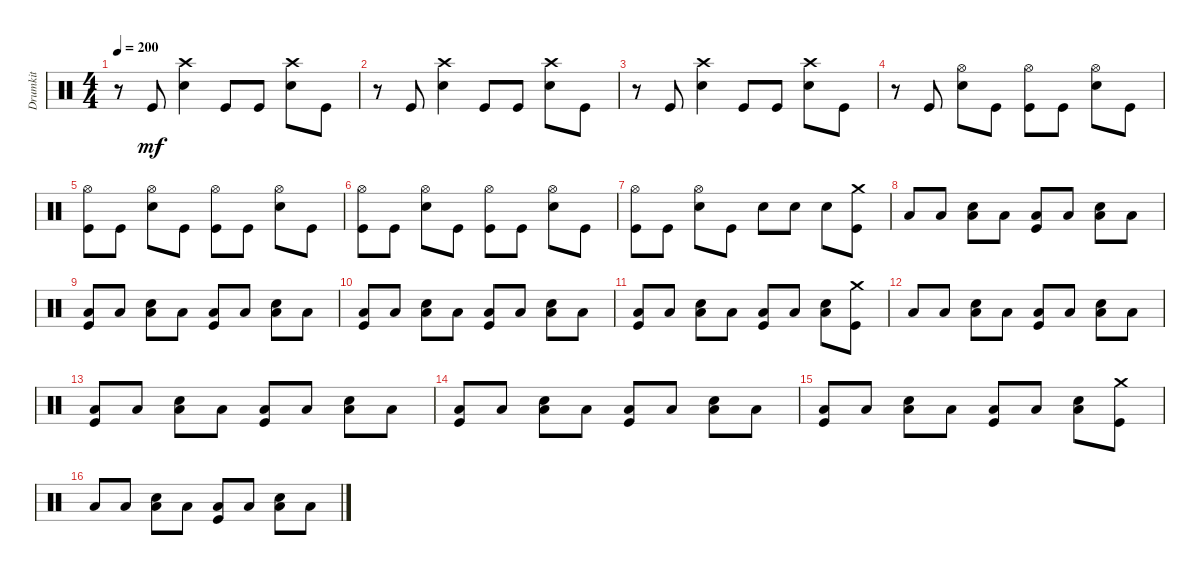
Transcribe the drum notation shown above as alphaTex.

\track ("Drumkit" "Drumkit") {instrument percussion}
\staff {score}
\articulation defaults
\ts (4 4)
\tempo 200
\clef neutral
\ks c
r.8{dy mf} "Kick (hit)".8 ("Snare (hit) 2" "Crash high (hit)").4 "Kick (hit)".8 "Kick (hit)".8 ("Snare (hit) 2" "Crash high (hit)").8 "Kick (hit)".8 |
r.8 "Kick (hit)".8 ("Snare (hit) 2" "Crash high (hit)").4 "Kick (hit)".8 "Kick (hit)".8 ("Snare (hit) 2" "Crash high (hit)").8 "Kick (hit)".8 |
r.8 "Kick (hit)".8 ("Snare (hit) 2" "Crash high (hit)").4 "Kick (hit)".8 "Kick (hit)".8 ("Snare (hit) 2" "Crash high (hit)").8 "Kick (hit)".8 |
r.8 "Kick (hit)".8 ("Hi-Hat (open)" "Snare (hit) 2").8 "Kick (hit)".8 ("Kick (hit)" "Hi-Hat (open)").8 "Kick (hit)".8 ("Snare (hit) 2" "Hi-Hat (open)").8 "Kick (hit)".8 |
("Kick (hit)" "Hi-Hat (open)").8 "Kick (hit)".8 ("Hi-Hat (open)" "Snare (hit) 2").8 "Kick (hit)".8 ("Kick (hit)" "Hi-Hat (open)").8 "Kick (hit)".8 ("Snare (hit) 2" "Hi-Hat (open)").8 "Kick (hit)".8 |
("Kick (hit)" "Hi-Hat (open)").8 "Kick (hit)".8 ("Hi-Hat (open)" "Snare (hit) 2").8 "Kick (hit)".8 ("Kick (hit)" "Hi-Hat (open)").8 "Kick (hit)".8 ("Snare (hit) 2" "Hi-Hat (open)").8 "Kick (hit)".8 |
("Kick (hit)" "Hi-Hat (open)").8 "Kick (hit)".8 ("Hi-Hat (open)" "Snare (hit) 2").8 "Kick (hit)".8 "Snare (hit) 2".8 "Snare (hit) 2".8 "Snare (hit) 2".8 ("Kick (hit)" "Crash medium (hit)").8 |
"Low Floor Tom (hit)".8 "Low Floor Tom (hit)".8 ("Low Floor Tom (hit)" "Snare (hit) 2").8 "Low Floor Tom (hit)".8 ("Low Floor Tom (hit)" "Kick (hit)").8 "Low Floor Tom (hit)".8 ("Low Floor Tom (hit)" "Snare (hit) 2").8 "Low Floor Tom (hit)".8 |
("Low Floor Tom (hit)" "Kick (hit)").8 "Low Floor Tom (hit)".8 ("Low Floor Tom (hit)" "Snare (hit) 2").8 "Low Floor Tom (hit)".8 ("Low Floor Tom (hit)" "Kick (hit)").8 "Low Floor Tom (hit)".8 ("Low Floor Tom (hit)" "Snare (hit) 2").8 "Low Floor Tom (hit)".8 |
("Low Floor Tom (hit)" "Kick (hit)").8 "Low Floor Tom (hit)".8 ("Low Floor Tom (hit)" "Snare (hit) 2").8 "Low Floor Tom (hit)".8 ("Low Floor Tom (hit)" "Kick (hit)").8 "Low Floor Tom (hit)".8 ("Low Floor Tom (hit)" "Snare (hit) 2").8 "Low Floor Tom (hit)".8 |
("Low Floor Tom (hit)" "Kick (hit)").8 "Low Floor Tom (hit)".8 ("Low Floor Tom (hit)" "Snare (hit) 2").8 "Low Floor Tom (hit)".8 ("Low Floor Tom (hit)" "Kick (hit)").8 "Low Floor Tom (hit)".8 ("Low Floor Tom (hit)" "Snare (hit) 2").8 ("Kick (hit)" "Crash medium (hit)").8 |
"Low Floor Tom (hit)".8 "Low Floor Tom (hit)".8 ("Low Floor Tom (hit)" "Snare (hit) 2").8 "Low Floor Tom (hit)".8 ("Low Floor Tom (hit)" "Kick (hit)").8 "Low Floor Tom (hit)".8 ("Low Floor Tom (hit)" "Snare (hit) 2").8 "Low Floor Tom (hit)".8 |
("Low Floor Tom (hit)" "Kick (hit)").8 "Low Floor Tom (hit)".8 ("Low Floor Tom (hit)" "Snare (hit) 2").8 "Low Floor Tom (hit)".8 ("Low Floor Tom (hit)" "Kick (hit)").8 "Low Floor Tom (hit)".8 ("Low Floor Tom (hit)" "Snare (hit) 2").8 "Low Floor Tom (hit)".8 |
("Low Floor Tom (hit)" "Kick (hit)").8 "Low Floor Tom (hit)".8 ("Low Floor Tom (hit)" "Snare (hit) 2").8 "Low Floor Tom (hit)".8 ("Low Floor Tom (hit)" "Kick (hit)").8 "Low Floor Tom (hit)".8 ("Low Floor Tom (hit)" "Snare (hit) 2").8 "Low Floor Tom (hit)".8 |
("Low Floor Tom (hit)" "Kick (hit)").8 "Low Floor Tom (hit)".8 ("Low Floor Tom (hit)" "Snare (hit) 2").8 "Low Floor Tom (hit)".8 ("Low Floor Tom (hit)" "Kick (hit)").8 "Low Floor Tom (hit)".8 ("Low Floor Tom (hit)" "Snare (hit) 2").8 ("Kick (hit)" "Crash medium (hit)").8 |
"Low Floor Tom (hit)".8 "Low Floor Tom (hit)".8 ("Low Floor Tom (hit)" "Snare (hit) 2").8 "Low Floor Tom (hit)".8 ("Low Floor Tom (hit)" "Kick (hit)").8 "Low Floor Tom (hit)".8 ("Low Floor Tom (hit)" "Snare (hit) 2").8 "Low Floor Tom (hit)".8
